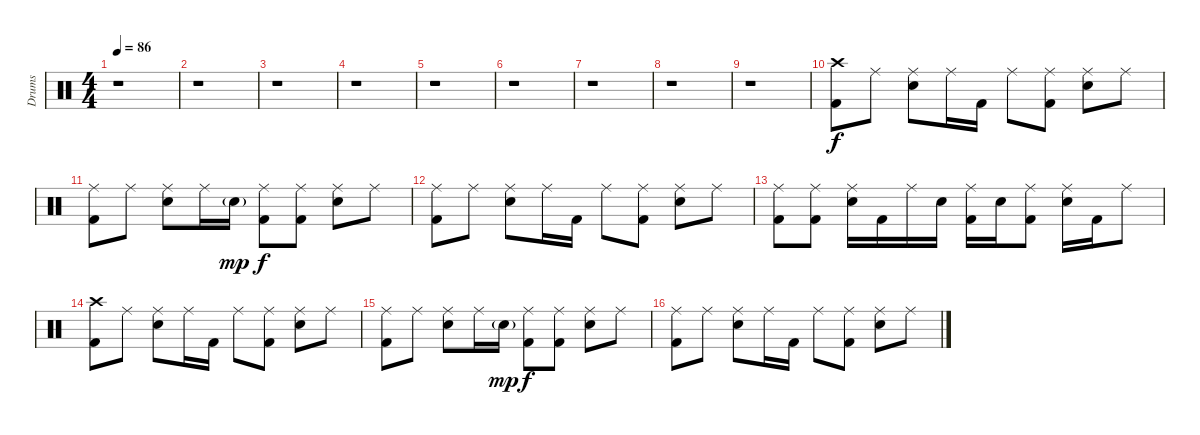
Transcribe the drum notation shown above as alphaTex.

\track ("Drums" "Drums") {instrument percussion}
\staff {score}
\articulation defaults
\ts (4 4)
\tempo 86
\clef neutral
\ks c
r.1{dy f} |
r.1 |
r.1 |
r.1 |
r.1 |
r.1 |
r.1 |
r.1 |
r.1 |
("Crash high (hit)" "Kick (hit) 2").8 "Ride (middle)".8 ("Ride (middle)" "Snare (hit) 2").8 "Ride (middle)".16 "Kick (hit) 2".16 "Ride (middle)".8 ("Ride (middle)" "Kick (hit) 2").8 ("Ride (middle)" "Snare (hit) 2").8 "Ride (middle)".8 |
("Ride (middle)" "Kick (hit) 2").8 "Ride (middle)".8 ("Ride (middle)" "Snare (hit) 2").8 "Ride (middle)".16 "Snare (hit) 2"{g}.16{dy mp} ("Ride (middle)" "Kick (hit) 2").8{dy f} ("Ride (middle)" "Kick (hit) 2").8 ("Ride (middle)" "Snare (hit) 2").8 "Ride (middle)".8 |
("Ride (middle)" "Kick (hit) 2").8 "Ride (middle)".8 ("Ride (middle)" "Snare (hit) 2").8 "Ride (middle)".16 "Kick (hit) 2".16 "Ride (middle)".8 ("Ride (middle)" "Kick (hit) 2").8 ("Ride (middle)" "Snare (hit) 2").8 "Ride (middle)".8 |
("Ride (middle)" "Kick (hit) 2").8 ("Ride (middle)" "Kick (hit) 2").8 ("Ride (middle)" "Snare (hit) 2").16 "Kick (hit) 2".16 "Ride (middle)".16 "Snare (hit) 2".16 ("Ride (middle)" "Kick (hit) 2").16 "Snare (hit) 2".16 ("Ride (middle)" "Kick (hit) 2").8 ("Ride (middle)" "Snare (hit) 2").16 "Kick (hit) 2".16 "Ride (middle)".8 |
("Crash high (hit)" "Kick (hit) 2").8 "Ride (middle)".8 ("Ride (middle)" "Snare (hit) 2").8 "Ride (middle)".16 "Kick (hit) 2".16 "Ride (middle)".8 ("Ride (middle)" "Kick (hit) 2").8 ("Ride (middle)" "Snare (hit) 2").8 "Ride (middle)".8 |
("Ride (middle)" "Kick (hit) 2").8 "Ride (middle)".8 ("Ride (middle)" "Snare (hit) 2").8 "Ride (middle)".16 "Snare (hit) 2"{g}.16{dy mp} ("Ride (middle)" "Kick (hit) 2").8{dy f} ("Ride (middle)" "Kick (hit) 2").8 ("Ride (middle)" "Snare (hit) 2").8 "Ride (middle)".8 |
("Ride (middle)" "Kick (hit) 2").8 "Ride (middle)".8 ("Ride (middle)" "Snare (hit) 2").8 "Ride (middle)".16 "Kick (hit) 2".16 "Ride (middle)".8 ("Ride (middle)" "Kick (hit) 2").8 ("Ride (middle)" "Snare (hit) 2").8 "Ride (middle)".8
